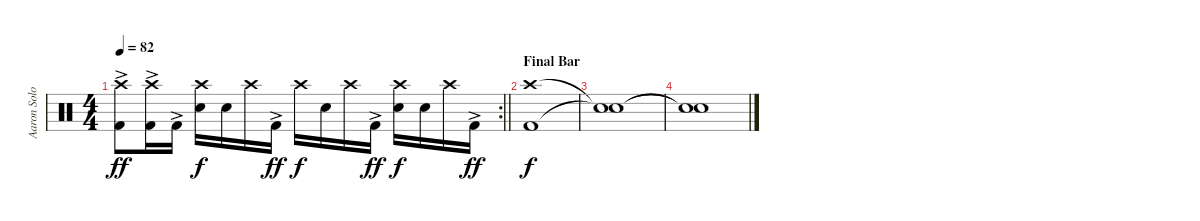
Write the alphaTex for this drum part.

\track ("Aaron Solowoniuk - Drums" "Aaron Solo") {instrument percussion}
\staff {score}
\articulation defaults
\rc 2
\ts (4 4)
\tempo 82
\clef neutral
\barLineRight lightlight
\ks c
("Crash high (hit)" "Kick (hit) 2"{ac}).8{dy ff} ("Crash high (hit)" "Kick (hit) 2"{ac}).16 "Kick (hit) 2"{ac}.16 ("Crash high (hit)" "Snare (hit) 2").16{dy f} "Snare (hit) 2".16 "Crash high (hit)".16 "Kick (hit) 2"{ac}.16{dy ff} "Crash high (hit)".16{dy f} "Snare (hit) 2".16 "Crash high (hit)".16 "Kick (hit) 2"{ac}.16{dy ff} ("Crash high (hit)" "Snare (hit) 2").16{dy f} "Snare (hit) 2".16 "Crash high (hit)".16 "Kick (hit) 2"{ac}.16{dy ff} |
\section ("" "Final Bar")
("Crash high (hit)" "Kick (hit) 2").1{dy f} |
("Snare (hit)"{t} "Snare (hit)"{t}).1 |
("Snare (hit)"{t} "Snare (hit)"{t}).1
